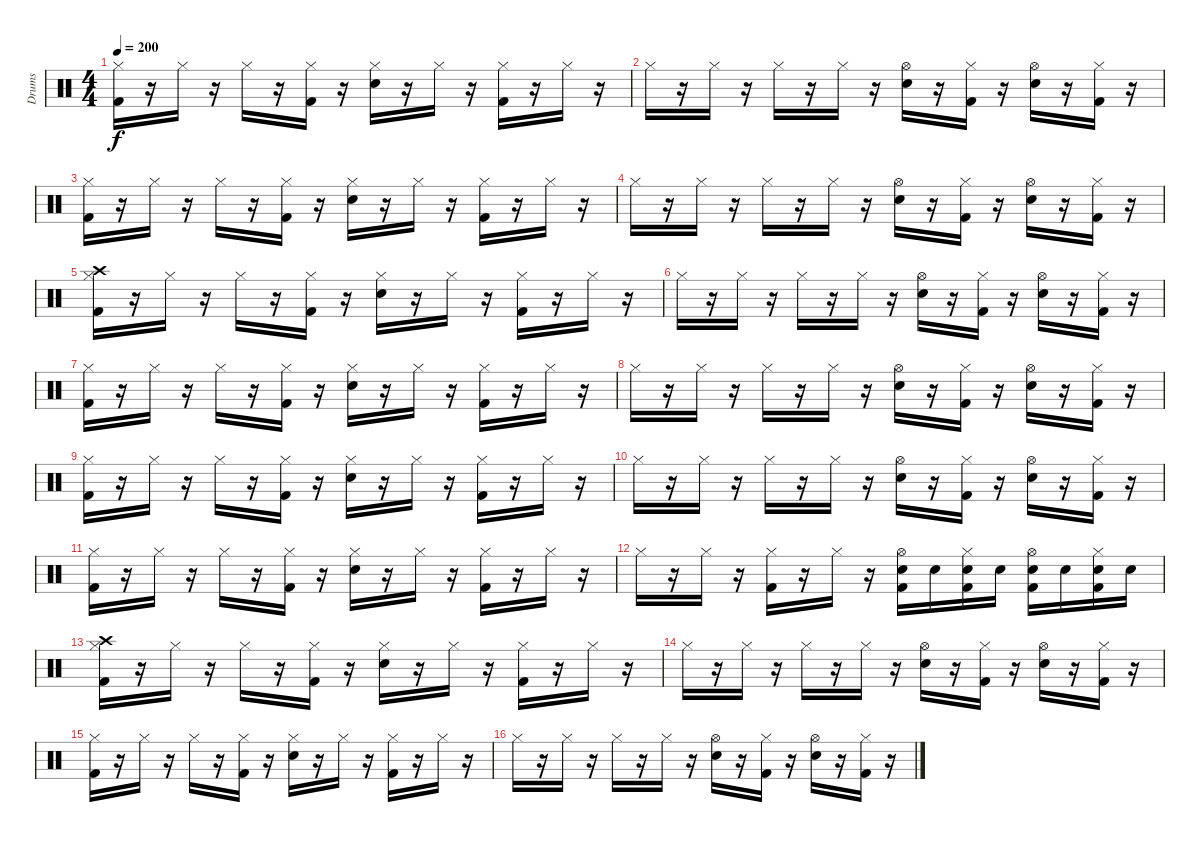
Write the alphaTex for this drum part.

\track ("Drums" "Drums") {instrument percussion}
\staff {score}
\articulation defaults
\ts (4 4)
\tempo 200
\clef neutral
\ks c
("Hi-Hat (closed)" "Kick (hit) 2").16{dy f} r.16 "Hi-Hat (closed)".16 r.16 "Hi-Hat (closed)".16 r.16 ("Hi-Hat (closed)" "Kick (hit) 2").16 r.16 ("Hi-Hat (closed)" "Electric Snare (hit)").16 r.16 "Hi-Hat (closed)".16 r.16 ("Hi-Hat (closed)" "Kick (hit) 2").16 r.16 "Hi-Hat (closed)".16 r.16 |
"Hi-Hat (closed)".16 r.16 "Hi-Hat (closed)".16 r.16 "Hi-Hat (closed)".16 r.16 "Hi-Hat (closed)".16 r.16 ("Hi-Hat (open)" "Electric Snare (hit)").16 r.16 ("Hi-Hat (closed)" "Kick (hit) 2").16 r.16 ("Hi-Hat (open)" "Electric Snare (hit)").16 r.16 ("Hi-Hat (closed)" "Kick (hit) 2").16 r.16 |
("Hi-Hat (closed)" "Kick (hit) 2").16 r.16 "Hi-Hat (closed)".16 r.16 "Hi-Hat (closed)".16 r.16 ("Hi-Hat (closed)" "Kick (hit) 2").16 r.16 ("Hi-Hat (closed)" "Electric Snare (hit)").16 r.16 "Hi-Hat (closed)".16 r.16 ("Hi-Hat (closed)" "Kick (hit) 2").16 r.16 "Hi-Hat (closed)".16 r.16 |
"Hi-Hat (closed)".16 r.16 "Hi-Hat (closed)".16 r.16 "Hi-Hat (closed)".16 r.16 "Hi-Hat (closed)".16 r.16 ("Hi-Hat (open)" "Electric Snare (hit)").16 r.16 ("Hi-Hat (closed)" "Kick (hit) 2").16 r.16 ("Hi-Hat (open)" "Electric Snare (hit)").16 r.16 ("Hi-Hat (closed)" "Kick (hit) 2").16 r.16 |
("Crash high (hit)" "Hi-Hat (closed)" "Kick (hit) 2").16 r.16 "Hi-Hat (closed)".16 r.16 "Hi-Hat (closed)".16 r.16 ("Hi-Hat (closed)" "Kick (hit) 2").16 r.16 ("Hi-Hat (closed)" "Electric Snare (hit)").16 r.16 "Hi-Hat (closed)".16 r.16 ("Hi-Hat (closed)" "Kick (hit) 2").16 r.16 "Hi-Hat (closed)".16 r.16 |
"Hi-Hat (closed)".16 r.16 "Hi-Hat (closed)".16 r.16 "Hi-Hat (closed)".16 r.16 "Hi-Hat (closed)".16 r.16 ("Hi-Hat (open)" "Electric Snare (hit)").16 r.16 ("Hi-Hat (closed)" "Kick (hit) 2").16 r.16 ("Hi-Hat (open)" "Electric Snare (hit)").16 r.16 ("Hi-Hat (closed)" "Kick (hit) 2").16 r.16 |
("Hi-Hat (closed)" "Kick (hit) 2").16 r.16 "Hi-Hat (closed)".16 r.16 "Hi-Hat (closed)".16 r.16 ("Hi-Hat (closed)" "Kick (hit) 2").16 r.16 ("Hi-Hat (closed)" "Electric Snare (hit)").16 r.16 "Hi-Hat (closed)".16 r.16 ("Hi-Hat (closed)" "Kick (hit) 2").16 r.16 "Hi-Hat (closed)".16 r.16 |
"Hi-Hat (closed)".16 r.16 "Hi-Hat (closed)".16 r.16 "Hi-Hat (closed)".16 r.16 "Hi-Hat (closed)".16 r.16 ("Hi-Hat (open)" "Electric Snare (hit)").16 r.16 ("Hi-Hat (closed)" "Kick (hit) 2").16 r.16 ("Hi-Hat (open)" "Electric Snare (hit)").16 r.16 ("Hi-Hat (closed)" "Kick (hit) 2").16 r.16 |
("Hi-Hat (closed)" "Kick (hit) 2").16 r.16 "Hi-Hat (closed)".16 r.16 "Hi-Hat (closed)".16 r.16 ("Hi-Hat (closed)" "Kick (hit) 2").16 r.16 ("Hi-Hat (closed)" "Electric Snare (hit)").16 r.16 "Hi-Hat (closed)".16 r.16 ("Hi-Hat (closed)" "Kick (hit) 2").16 r.16 "Hi-Hat (closed)".16 r.16 |
"Hi-Hat (closed)".16 r.16 "Hi-Hat (closed)".16 r.16 "Hi-Hat (closed)".16 r.16 "Hi-Hat (closed)".16 r.16 ("Hi-Hat (open)" "Electric Snare (hit)").16 r.16 ("Hi-Hat (closed)" "Kick (hit) 2").16 r.16 ("Hi-Hat (open)" "Electric Snare (hit)").16 r.16 ("Hi-Hat (closed)" "Kick (hit) 2").16 r.16 |
("Hi-Hat (closed)" "Kick (hit) 2").16 r.16 "Hi-Hat (closed)".16 r.16 "Hi-Hat (closed)".16 r.16 ("Hi-Hat (closed)" "Kick (hit) 2").16 r.16 ("Hi-Hat (closed)" "Electric Snare (hit)").16 r.16 "Hi-Hat (closed)".16 r.16 ("Hi-Hat (closed)" "Kick (hit) 2").16 r.16 "Hi-Hat (closed)".16 r.16 |
"Hi-Hat (closed)".16 r.16 "Hi-Hat (closed)".16 r.16 ("Hi-Hat (closed)" "Kick (hit) 2").16 r.16 "Hi-Hat (closed)".16 r.16 ("Hi-Hat (open)" "Electric Snare (hit)" "Kick (hit) 2").16 "Electric Snare (hit)".16 ("Hi-Hat (closed)" "Electric Snare (hit)" "Kick (hit) 2").16 "Electric Snare (hit)".16 ("Hi-Hat (open)" "Electric Snare (hit)" "Kick (hit) 2").16 "Electric Snare (hit)".16 ("Hi-Hat (closed)" "Electric Snare (hit)" "Kick (hit) 2").16 "Electric Snare (hit)".16 |
("Crash high (hit)" "Hi-Hat (closed)" "Kick (hit) 2").16 r.16 "Hi-Hat (closed)".16 r.16 "Hi-Hat (closed)".16 r.16 ("Hi-Hat (closed)" "Kick (hit) 2").16 r.16 ("Hi-Hat (closed)" "Electric Snare (hit)").16 r.16 "Hi-Hat (closed)".16 r.16 ("Hi-Hat (closed)" "Kick (hit) 2").16 r.16 "Hi-Hat (closed)".16 r.16 |
"Hi-Hat (closed)".16 r.16 "Hi-Hat (closed)".16 r.16 "Hi-Hat (closed)".16 r.16 "Hi-Hat (closed)".16 r.16 ("Hi-Hat (open)" "Electric Snare (hit)").16 r.16 ("Hi-Hat (closed)" "Kick (hit) 2").16 r.16 ("Hi-Hat (open)" "Electric Snare (hit)").16 r.16 ("Hi-Hat (closed)" "Kick (hit) 2").16 r.16 |
("Hi-Hat (closed)" "Kick (hit) 2").16 r.16 "Hi-Hat (closed)".16 r.16 "Hi-Hat (closed)".16 r.16 ("Hi-Hat (closed)" "Kick (hit) 2").16 r.16 ("Hi-Hat (closed)" "Electric Snare (hit)").16 r.16 "Hi-Hat (closed)".16 r.16 ("Hi-Hat (closed)" "Kick (hit) 2").16 r.16 "Hi-Hat (closed)".16 r.16 |
"Hi-Hat (closed)".16 r.16 "Hi-Hat (closed)".16 r.16 "Hi-Hat (closed)".16 r.16 "Hi-Hat (closed)".16 r.16 ("Hi-Hat (open)" "Electric Snare (hit)").16 r.16 ("Hi-Hat (closed)" "Kick (hit) 2").16 r.16 ("Hi-Hat (open)" "Electric Snare (hit)").16 r.16 ("Hi-Hat (closed)" "Kick (hit) 2").16 r.16
